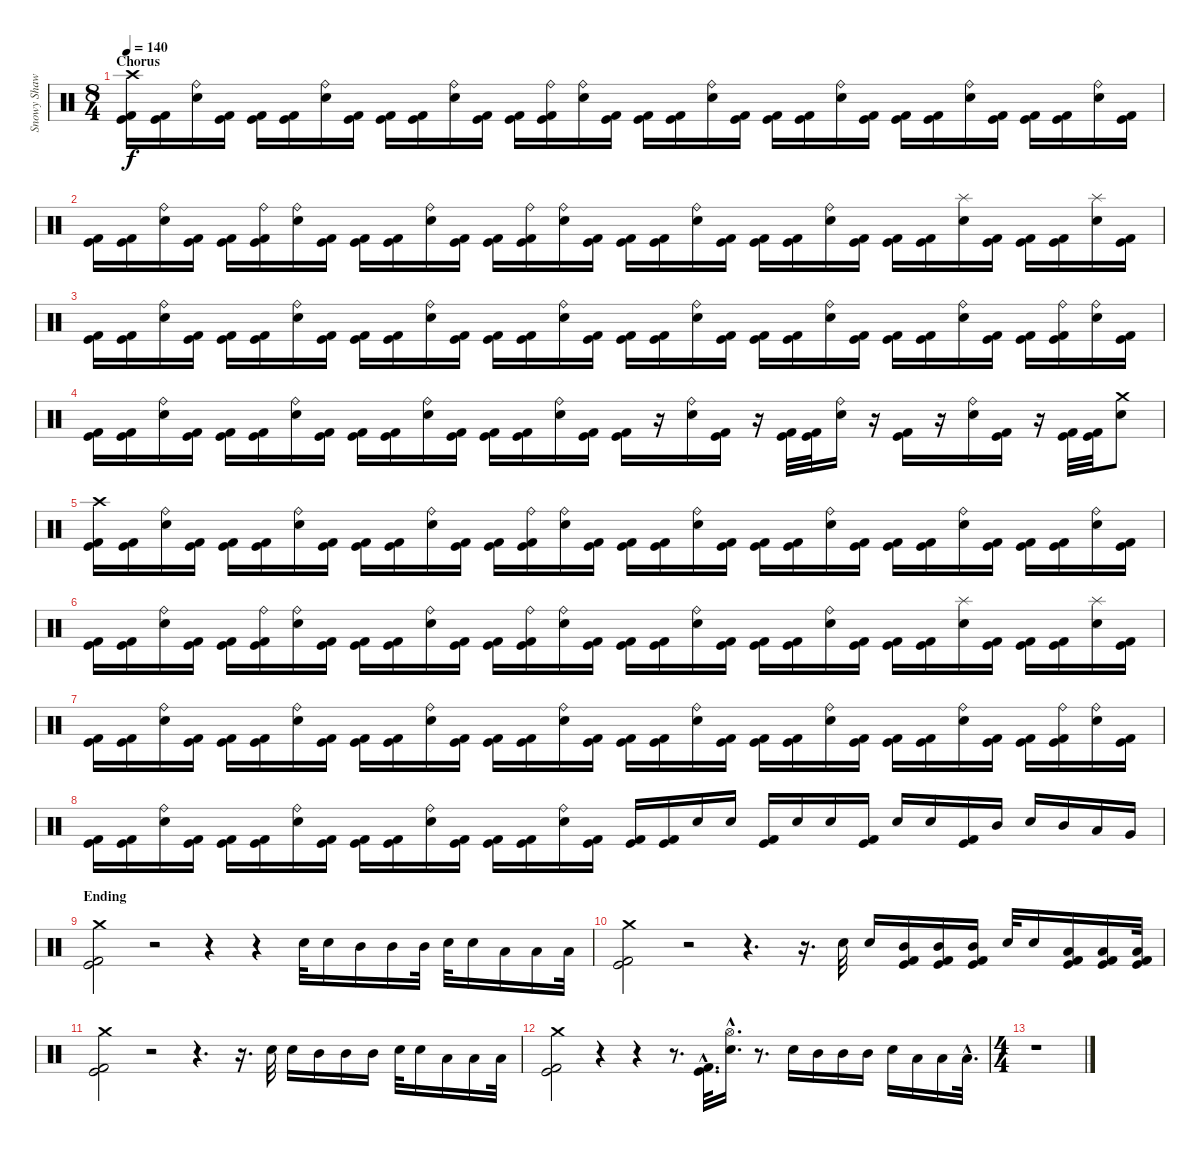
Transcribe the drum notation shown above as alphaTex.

\track ("Snowy Shaw" "Snowy Shaw") {instrument percussion}
\staff {score}
\articulation defaults
\ts (8 4)
\section ("" "Chorus")
\tempo 140
\clef neutral
\ks c
("Crash high (hit)" "Kick (hit)" "Kick (hit) 2").16{dy f} ("Kick (hit)" "Kick (hit) 2").16 ("Ride (bell)" "Electric Snare (hit)").16 ("Kick (hit)" "Kick (hit) 2").16 ("Kick (hit)" "Kick (hit) 2").16 ("Kick (hit)" "Kick (hit) 2").16 ("Ride (bell)" "Electric Snare (hit)").16 ("Kick (hit)" "Kick (hit) 2").16 ("Kick (hit)" "Kick (hit) 2").16 ("Kick (hit)" "Kick (hit) 2").16 ("Ride (bell)" "Electric Snare (hit)").16 ("Kick (hit)" "Kick (hit) 2").16 ("Kick (hit)" "Kick (hit) 2").16 ("Ride (bell)" "Kick (hit)" "Kick (hit) 2").16 ("Ride (bell)" "Electric Snare (hit)").16 ("Kick (hit)" "Kick (hit) 2").16 ("Kick (hit)" "Kick (hit) 2").16 ("Kick (hit)" "Kick (hit) 2").16 ("Ride (bell)" "Electric Snare (hit)").16 ("Kick (hit)" "Kick (hit) 2").16 ("Kick (hit)" "Kick (hit) 2").16 ("Kick (hit)" "Kick (hit) 2").16 ("Ride (bell)" "Electric Snare (hit)").16 ("Kick (hit)" "Kick (hit) 2").16 ("Kick (hit)" "Kick (hit) 2").16 ("Kick (hit)" "Kick (hit) 2").16 ("Ride (bell)" "Electric Snare (hit)").16 ("Kick (hit)" "Kick (hit) 2").16 ("Kick (hit)" "Kick (hit) 2").16 ("Kick (hit)" "Kick (hit) 2").16 ("Ride (bell)" "Electric Snare (hit)").16 ("Kick (hit)" "Kick (hit) 2").16 |
("Kick (hit)" "Kick (hit) 2").16 ("Kick (hit)" "Kick (hit) 2").16 ("Ride (bell)" "Electric Snare (hit)").16 ("Kick (hit)" "Kick (hit) 2").16 ("Kick (hit)" "Kick (hit) 2").16 ("Ride (bell)" "Kick (hit)" "Kick (hit) 2").16 ("Ride (bell)" "Electric Snare (hit)").16 ("Kick (hit)" "Kick (hit) 2").16 ("Kick (hit)" "Kick (hit) 2").16 ("Kick (hit)" "Kick (hit) 2").16 ("Ride (bell)" "Electric Snare (hit)").16 ("Kick (hit)" "Kick (hit) 2").16 ("Kick (hit)" "Kick (hit) 2").16 ("Ride (bell)" "Kick (hit)" "Kick (hit) 2").16 ("Ride (bell)" "Electric Snare (hit)").16 ("Kick (hit)" "Kick (hit) 2").16 ("Kick (hit)" "Kick (hit) 2").16 ("Kick (hit)" "Kick (hit) 2").16 ("Ride (bell)" "Electric Snare (hit)").16 ("Kick (hit)" "Kick (hit) 2").16 ("Kick (hit)" "Kick (hit) 2").16 ("Kick (hit)" "Kick (hit) 2").16 ("Ride (bell)" "Electric Snare (hit)").16 ("Kick (hit)" "Kick (hit) 2").16 ("Kick (hit)" "Kick (hit) 2").16 ("Kick (hit)" "Kick (hit) 2").16 ("Splash (hit)" "Electric Snare (hit)").16 ("Kick (hit)" "Kick (hit) 2").16 ("Kick (hit)" "Kick (hit) 2").16 ("Kick (hit)" "Kick (hit) 2").16 ("Splash (hit)" "Electric Snare (hit)").16 ("Kick (hit)" "Kick (hit) 2").16 |
("Kick (hit)" "Kick (hit) 2").16 ("Kick (hit)" "Kick (hit) 2").16 ("Ride (bell)" "Electric Snare (hit)").16 ("Kick (hit)" "Kick (hit) 2").16 ("Kick (hit)" "Kick (hit) 2").16 ("Kick (hit)" "Kick (hit) 2").16 ("Ride (bell)" "Electric Snare (hit)").16 ("Kick (hit)" "Kick (hit) 2").16 ("Kick (hit)" "Kick (hit) 2").16 ("Kick (hit)" "Kick (hit) 2").16 ("Ride (bell)" "Electric Snare (hit)").16 ("Kick (hit)" "Kick (hit) 2").16 ("Kick (hit)" "Kick (hit) 2").16 ("Kick (hit)" "Kick (hit) 2").16 ("Ride (bell)" "Electric Snare (hit)").16 ("Kick (hit)" "Kick (hit) 2").16 ("Kick (hit)" "Kick (hit) 2").16 ("Kick (hit)" "Kick (hit) 2").16 ("Ride (bell)" "Electric Snare (hit)").16 ("Kick (hit)" "Kick (hit) 2").16 ("Kick (hit)" "Kick (hit) 2").16 ("Kick (hit)" "Kick (hit) 2").16 ("Ride (bell)" "Electric Snare (hit)").16 ("Kick (hit)" "Kick (hit) 2").16 ("Kick (hit)" "Kick (hit) 2").16 ("Kick (hit)" "Kick (hit) 2").16 ("Ride (bell)" "Electric Snare (hit)").16 ("Kick (hit)" "Kick (hit) 2").16 ("Kick (hit)" "Kick (hit) 2").16 ("Ride (bell)" "Kick (hit)" "Kick (hit) 2").16 ("Ride (bell)" "Electric Snare (hit)").16 ("Kick (hit)" "Kick (hit) 2").16 |
("Kick (hit)" "Kick (hit) 2").16 ("Kick (hit)" "Kick (hit) 2").16 ("Ride (bell)" "Electric Snare (hit)").16 ("Kick (hit)" "Kick (hit) 2").16 ("Kick (hit)" "Kick (hit) 2").16 ("Kick (hit)" "Kick (hit) 2").16 ("Ride (bell)" "Electric Snare (hit)").16 ("Kick (hit)" "Kick (hit) 2").16 ("Kick (hit)" "Kick (hit) 2").16 ("Kick (hit)" "Kick (hit) 2").16 ("Ride (bell)" "Electric Snare (hit)").16 ("Kick (hit)" "Kick (hit) 2").16 ("Kick (hit)" "Kick (hit) 2").16 ("Kick (hit)" "Kick (hit) 2").16 ("Ride (bell)" "Electric Snare (hit)").16 ("Kick (hit)" "Kick (hit) 2").16 ("Kick (hit)" "Kick (hit) 2").16 r.16 ("Ride (bell)" "Electric Snare (hit)").16 ("Kick (hit) 2" "Kick (hit)").16 r.16 ("Kick (hit) 2" "Kick (hit)").32 ("Kick (hit) 2" "Kick (hit)").32 ("Ride (bell)" "Electric Snare (hit)").16 r.16 ("Kick (hit) 2" "Kick (hit)").16 r.16 ("Ride (bell)" "Electric Snare (hit)").16 ("Kick (hit) 2" "Kick (hit)").16 r.16 ("Kick (hit)" "Kick (hit) 2").32 ("Kick (hit)" "Kick (hit) 2").32 ("Crash medium (hit)" "Electric Snare (hit)").8 |
("Crash high (hit)" "Kick (hit)" "Kick (hit) 2").16 ("Kick (hit)" "Kick (hit) 2").16 ("Ride (bell)" "Electric Snare (hit)").16 ("Kick (hit)" "Kick (hit) 2").16 ("Kick (hit)" "Kick (hit) 2").16 ("Kick (hit)" "Kick (hit) 2").16 ("Ride (bell)" "Electric Snare (hit)").16 ("Kick (hit)" "Kick (hit) 2").16 ("Kick (hit)" "Kick (hit) 2").16 ("Kick (hit)" "Kick (hit) 2").16 ("Ride (bell)" "Electric Snare (hit)").16 ("Kick (hit)" "Kick (hit) 2").16 ("Kick (hit)" "Kick (hit) 2").16 ("Ride (bell)" "Kick (hit)" "Kick (hit) 2").16 ("Ride (bell)" "Electric Snare (hit)").16 ("Kick (hit)" "Kick (hit) 2").16 ("Kick (hit)" "Kick (hit) 2").16 ("Kick (hit)" "Kick (hit) 2").16 ("Ride (bell)" "Electric Snare (hit)").16 ("Kick (hit)" "Kick (hit) 2").16 ("Kick (hit)" "Kick (hit) 2").16 ("Kick (hit)" "Kick (hit) 2").16 ("Ride (bell)" "Electric Snare (hit)").16 ("Kick (hit)" "Kick (hit) 2").16 ("Kick (hit)" "Kick (hit) 2").16 ("Kick (hit)" "Kick (hit) 2").16 ("Ride (bell)" "Electric Snare (hit)").16 ("Kick (hit)" "Kick (hit) 2").16 ("Kick (hit)" "Kick (hit) 2").16 ("Kick (hit)" "Kick (hit) 2").16 ("Ride (bell)" "Electric Snare (hit)").16 ("Kick (hit)" "Kick (hit) 2").16 |
("Kick (hit)" "Kick (hit) 2").16 ("Kick (hit)" "Kick (hit) 2").16 ("Ride (bell)" "Electric Snare (hit)").16 ("Kick (hit)" "Kick (hit) 2").16 ("Kick (hit)" "Kick (hit) 2").16 ("Ride (bell)" "Kick (hit)" "Kick (hit) 2").16 ("Ride (bell)" "Electric Snare (hit)").16 ("Kick (hit)" "Kick (hit) 2").16 ("Kick (hit)" "Kick (hit) 2").16 ("Kick (hit)" "Kick (hit) 2").16 ("Ride (bell)" "Electric Snare (hit)").16 ("Kick (hit)" "Kick (hit) 2").16 ("Kick (hit)" "Kick (hit) 2").16 ("Ride (bell)" "Kick (hit)" "Kick (hit) 2").16 ("Ride (bell)" "Electric Snare (hit)").16 ("Kick (hit)" "Kick (hit) 2").16 ("Kick (hit)" "Kick (hit) 2").16 ("Kick (hit)" "Kick (hit) 2").16 ("Ride (bell)" "Electric Snare (hit)").16 ("Kick (hit)" "Kick (hit) 2").16 ("Kick (hit)" "Kick (hit) 2").16 ("Kick (hit)" "Kick (hit) 2").16 ("Ride (bell)" "Electric Snare (hit)").16 ("Kick (hit)" "Kick (hit) 2").16 ("Kick (hit)" "Kick (hit) 2").16 ("Kick (hit)" "Kick (hit) 2").16 ("Splash (hit)" "Electric Snare (hit)").16 ("Kick (hit)" "Kick (hit) 2").16 ("Kick (hit)" "Kick (hit) 2").16 ("Kick (hit)" "Kick (hit) 2").16 ("Splash (hit)" "Electric Snare (hit)").16 ("Kick (hit)" "Kick (hit) 2").16 |
("Kick (hit)" "Kick (hit) 2").16 ("Kick (hit)" "Kick (hit) 2").16 ("Ride (bell)" "Electric Snare (hit)").16 ("Kick (hit)" "Kick (hit) 2").16 ("Kick (hit)" "Kick (hit) 2").16 ("Kick (hit)" "Kick (hit) 2").16 ("Ride (bell)" "Electric Snare (hit)").16 ("Kick (hit)" "Kick (hit) 2").16 ("Kick (hit)" "Kick (hit) 2").16 ("Kick (hit)" "Kick (hit) 2").16 ("Ride (bell)" "Electric Snare (hit)").16 ("Kick (hit)" "Kick (hit) 2").16 ("Kick (hit)" "Kick (hit) 2").16 ("Kick (hit)" "Kick (hit) 2").16 ("Ride (bell)" "Electric Snare (hit)").16 ("Kick (hit)" "Kick (hit) 2").16 ("Kick (hit)" "Kick (hit) 2").16 ("Kick (hit)" "Kick (hit) 2").16 ("Ride (bell)" "Electric Snare (hit)").16 ("Kick (hit)" "Kick (hit) 2").16 ("Kick (hit)" "Kick (hit) 2").16 ("Kick (hit)" "Kick (hit) 2").16 ("Ride (bell)" "Electric Snare (hit)").16 ("Kick (hit)" "Kick (hit) 2").16 ("Kick (hit)" "Kick (hit) 2").16 ("Kick (hit)" "Kick (hit) 2").16 ("Ride (bell)" "Electric Snare (hit)").16 ("Kick (hit)" "Kick (hit) 2").16 ("Kick (hit)" "Kick (hit) 2").16 ("Ride (bell)" "Kick (hit)" "Kick (hit) 2").16 ("Ride (bell)" "Electric Snare (hit)").16 ("Kick (hit)" "Kick (hit) 2").16 |
("Kick (hit)" "Kick (hit) 2").16 ("Kick (hit)" "Kick (hit) 2").16 ("Ride (bell)" "Electric Snare (hit)").16 ("Kick (hit)" "Kick (hit) 2").16 ("Kick (hit)" "Kick (hit) 2").16 ("Kick (hit)" "Kick (hit) 2").16 ("Ride (bell)" "Electric Snare (hit)").16 ("Kick (hit)" "Kick (hit) 2").16 ("Kick (hit)" "Kick (hit) 2").16 ("Kick (hit)" "Kick (hit) 2").16 ("Ride (bell)" "Electric Snare (hit)").16 ("Kick (hit)" "Kick (hit) 2").16 ("Kick (hit)" "Kick (hit) 2").16 ("Kick (hit)" "Kick (hit) 2").16 ("Ride (bell)" "Electric Snare (hit)").16 ("Kick (hit)" "Kick (hit) 2").16 ("Kick (hit)" "Kick (hit) 2").16 ("Kick (hit)" "Kick (hit) 2").16 "Electric Snare (hit)".16 "Electric Snare (hit)".16 ("Kick (hit)" "Kick (hit) 2").16 "Electric Snare (hit)".16 "Electric Snare (hit)".16 ("Kick (hit)" "Kick (hit) 2").16 "Electric Snare (hit)".16 "Electric Snare (hit)".16 ("Kick (hit) 2" "Kick (hit)").16 "Mid Tom (hit)".16 "Electric Snare (hit)".16 "Mid Tom (hit)".16 "Low Tom (hit)".16 "Very Low Tom (hit)".16 |
\section ("" "Ending")
("Crash medium (hit)" "Kick (hit) 2" "Kick (hit)").2 r.2 r.4 r.4 "Electric Snare (hit)".32 "Electric Snare (hit)".16 "Mid Tom (hit)".16 "Mid Tom (hit)".16 "Mid Tom (hit)".32 "Electric Snare (hit)".32 "Electric Snare (hit)".16 "Low Tom (hit)".16 "Low Tom (hit)".16 "Low Tom (hit)".32 |
("Crash medium (hit)" "Kick (hit) 2" "Kick (hit)").2 r.2 r.4{d} r.16{d} "Electric Snare (hit)".32 "Electric Snare (hit)".16 ("Mid Tom (hit)" "Kick (hit) 2" "Kick (hit)").16 ("Mid Tom (hit)" "Kick (hit) 2" "Kick (hit)").16 ("Mid Tom (hit)" "Kick (hit) 2" "Kick (hit)").16 "Electric Snare (hit)".32 "Electric Snare (hit)".16 ("Low Tom (hit)" "Kick (hit) 2" "Kick (hit)").16 ("Low Tom (hit)" "Kick (hit) 2" "Kick (hit)").16 ("Low Tom (hit)" "Kick (hit) 2" "Kick (hit)").32 |
("Crash medium (hit)" "Kick (hit) 2" "Kick (hit)").2 r.2 r.4{d} r.16{d} "Electric Snare (hit)".32 "Electric Snare (hit)".16 "Mid Tom (hit)".16 "Mid Tom (hit)".16 "Mid Tom (hit)".16 "Electric Snare (hit)".32 "Electric Snare (hit)".16 "Low Tom (hit)".16 "Low Tom (hit)".16 "Low Tom (hit)".32 |
("Crash medium (hit)" "Kick (hit) 2" "Kick (hit)").2 r.4 r.4 r.8{d} ("Kick (hit) 2"{hac} "Kick (hit)"{hac}).32{d} ("Hi-Hat (open)"{hac} "Electric Snare (hit)"{hac}).16{d} r.8{d} "Electric Snare (hit)".16 "Mid Tom (hit)".16 "Mid Tom (hit)".16 "Mid Tom (hit)".16 "Electric Snare (hit)".16 "Low Tom (hit)".16 "Low Tom (hit)".16 "Low Tom (hit)"{hac}.32{d} |
\ts (4 4)
r.1
